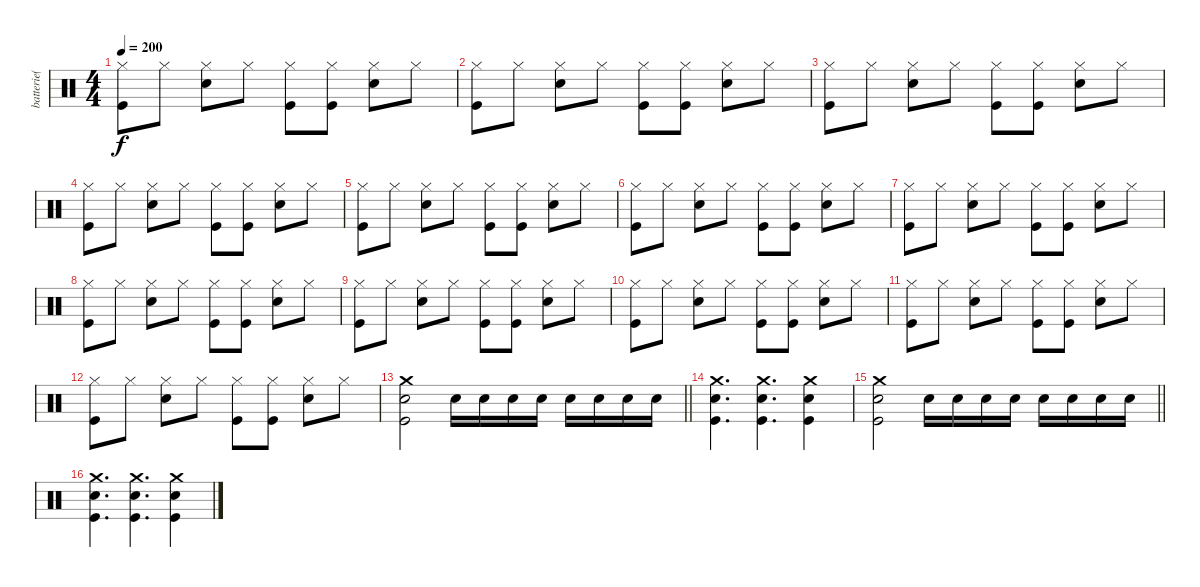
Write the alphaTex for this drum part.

\track ("batterie( Guillaume ) " "batterie( ") {instrument percussion}
\staff {score}
\articulation defaults
\ts (4 4)
\tempo 200
\clef neutral
\ks c
("Hi-Hat (closed)" "Kick (hit)").8{dy f} "Hi-Hat (closed)".8 ("Hi-Hat (closed)" "Snare (hit) 2").8 "Hi-Hat (closed)".8 ("Hi-Hat (closed)" "Kick (hit)").8 ("Hi-Hat (closed)" "Kick (hit)").8 ("Hi-Hat (closed)" "Snare (hit) 2").8 "Hi-Hat (closed)".8 |
("Hi-Hat (closed)" "Kick (hit)").8 "Hi-Hat (closed)".8 ("Hi-Hat (closed)" "Snare (hit) 2").8 "Hi-Hat (closed)".8 ("Hi-Hat (closed)" "Kick (hit)").8 ("Hi-Hat (closed)" "Kick (hit)").8 ("Hi-Hat (closed)" "Snare (hit) 2").8 "Hi-Hat (closed)".8 |
("Hi-Hat (closed)" "Kick (hit)").8 "Hi-Hat (closed)".8 ("Hi-Hat (closed)" "Snare (hit) 2").8 "Hi-Hat (closed)".8 ("Hi-Hat (closed)" "Kick (hit)").8 ("Hi-Hat (closed)" "Kick (hit)").8 ("Hi-Hat (closed)" "Snare (hit) 2").8 "Hi-Hat (closed)".8 |
("Hi-Hat (closed)" "Kick (hit)").8 "Hi-Hat (closed)".8 ("Hi-Hat (closed)" "Snare (hit) 2").8 "Hi-Hat (closed)".8 ("Hi-Hat (closed)" "Kick (hit)").8 ("Hi-Hat (closed)" "Kick (hit)").8 ("Hi-Hat (closed)" "Snare (hit) 2").8 "Hi-Hat (closed)".8 |
("Hi-Hat (closed)" "Kick (hit)").8 "Hi-Hat (closed)".8 ("Hi-Hat (closed)" "Snare (hit) 2").8 "Hi-Hat (closed)".8 ("Hi-Hat (closed)" "Kick (hit)").8 ("Hi-Hat (closed)" "Kick (hit)").8 ("Hi-Hat (closed)" "Snare (hit) 2").8 "Hi-Hat (closed)".8 |
("Hi-Hat (closed)" "Kick (hit)").8 "Hi-Hat (closed)".8 ("Hi-Hat (closed)" "Snare (hit) 2").8 "Hi-Hat (closed)".8 ("Hi-Hat (closed)" "Kick (hit)").8 ("Hi-Hat (closed)" "Kick (hit)").8 ("Hi-Hat (closed)" "Snare (hit) 2").8 "Hi-Hat (closed)".8 |
("Hi-Hat (closed)" "Kick (hit)").8 "Hi-Hat (closed)".8 ("Hi-Hat (closed)" "Snare (hit) 2").8 "Hi-Hat (closed)".8 ("Hi-Hat (closed)" "Kick (hit)").8 ("Hi-Hat (closed)" "Kick (hit)").8 ("Hi-Hat (closed)" "Snare (hit) 2").8 "Hi-Hat (closed)".8 |
("Hi-Hat (closed)" "Kick (hit)").8 "Hi-Hat (closed)".8 ("Hi-Hat (closed)" "Snare (hit) 2").8 "Hi-Hat (closed)".8 ("Hi-Hat (closed)" "Kick (hit)").8 ("Hi-Hat (closed)" "Kick (hit)").8 ("Hi-Hat (closed)" "Snare (hit) 2").8 "Hi-Hat (closed)".8 |
("Hi-Hat (closed)" "Kick (hit)").8 "Hi-Hat (closed)".8 ("Hi-Hat (closed)" "Snare (hit) 2").8 "Hi-Hat (closed)".8 ("Hi-Hat (closed)" "Kick (hit)").8 ("Hi-Hat (closed)" "Kick (hit)").8 ("Hi-Hat (closed)" "Snare (hit) 2").8 "Hi-Hat (closed)".8 |
("Hi-Hat (closed)" "Kick (hit)").8 "Hi-Hat (closed)".8 ("Hi-Hat (closed)" "Snare (hit) 2").8 "Hi-Hat (closed)".8 ("Hi-Hat (closed)" "Kick (hit)").8 ("Hi-Hat (closed)" "Kick (hit)").8 ("Hi-Hat (closed)" "Snare (hit) 2").8 "Hi-Hat (closed)".8 |
("Hi-Hat (closed)" "Kick (hit)").8 "Hi-Hat (closed)".8 ("Hi-Hat (closed)" "Snare (hit) 2").8 "Hi-Hat (closed)".8 ("Hi-Hat (closed)" "Kick (hit)").8 ("Hi-Hat (closed)" "Kick (hit)").8 ("Hi-Hat (closed)" "Snare (hit) 2").8 "Hi-Hat (closed)".8 |
("Hi-Hat (closed)" "Kick (hit)").8 "Hi-Hat (closed)".8 ("Hi-Hat (closed)" "Snare (hit) 2").8 "Hi-Hat (closed)".8 ("Hi-Hat (closed)" "Kick (hit)").8 ("Hi-Hat (closed)" "Kick (hit)").8 ("Hi-Hat (closed)" "Snare (hit) 2").8 "Hi-Hat (closed)".8 |
\barLineRight lightlight
("Crash medium (hit)" "Snare (hit) 2" "Kick (hit)").2 "Snare (hit) 2".16 "Snare (hit) 2".16 "Snare (hit) 2".16 "Snare (hit) 2".16 "Snare (hit) 2".16 "Snare (hit) 2".16 "Snare (hit) 2".16 "Snare (hit) 2".16 |
("Crash medium (hit)" "Snare (hit) 2" "Kick (hit)").4{d} ("Crash medium (hit)" "Snare (hit) 2" "Kick (hit)").4{d} ("Crash medium (hit)" "Snare (hit) 2" "Kick (hit)").4 |
\barLineRight lightlight
("Crash medium (hit)" "Snare (hit) 2" "Kick (hit)").2 "Snare (hit) 2".16 "Snare (hit) 2".16 "Snare (hit) 2".16 "Snare (hit) 2".16 "Snare (hit) 2".16 "Snare (hit) 2".16 "Snare (hit) 2".16 "Snare (hit) 2".16 |
("Crash medium (hit)" "Snare (hit) 2" "Kick (hit)").4{d} ("Crash medium (hit)" "Snare (hit) 2" "Kick (hit)").4{d} ("Crash medium (hit)" "Snare (hit) 2" "Kick (hit)").4
